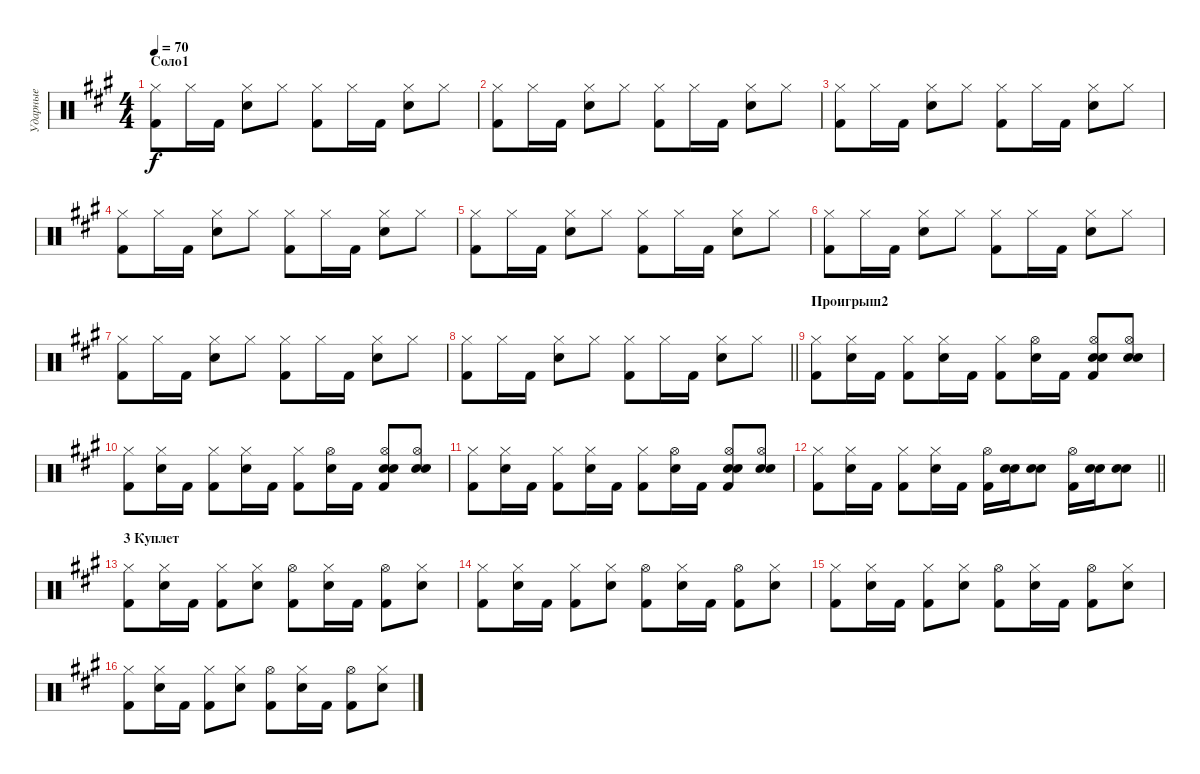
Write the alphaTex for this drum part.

\track ("Ударные" "Ударные") {instrument percussion}
\staff {score}
\articulation defaults
\ts (4 4)
\section ("" "Соло1")
\tempo 70
\clef neutral
\ks a
("Hi-Hat (closed)" "Kick (hit) 2").8{dy f} "Hi-Hat (closed)".16 "Kick (hit) 2".16 ("Hi-Hat (closed)" "Snare (hit) 2").8 "Hi-Hat (closed)".8 ("Hi-Hat (closed)" "Kick (hit) 2").8 "Hi-Hat (closed)".16 "Kick (hit) 2".16 ("Hi-Hat (closed)" "Snare (hit) 2").8 "Hi-Hat (closed)".8 |
("Hi-Hat (closed)" "Kick (hit) 2").8 "Hi-Hat (closed)".16 "Kick (hit) 2".16 ("Hi-Hat (closed)" "Snare (hit) 2").8 "Hi-Hat (closed)".8 ("Hi-Hat (closed)" "Kick (hit) 2").8 "Hi-Hat (closed)".16 "Kick (hit) 2".16 ("Hi-Hat (closed)" "Snare (hit) 2").8 "Hi-Hat (closed)".8 |
("Hi-Hat (closed)" "Kick (hit) 2").8 "Hi-Hat (closed)".16 "Kick (hit) 2".16 ("Hi-Hat (closed)" "Snare (hit) 2").8 "Hi-Hat (closed)".8 ("Hi-Hat (closed)" "Kick (hit) 2").8 "Hi-Hat (closed)".16 "Kick (hit) 2".16 ("Hi-Hat (closed)" "Snare (hit) 2").8 "Hi-Hat (closed)".8 |
("Hi-Hat (closed)" "Kick (hit) 2").8 "Hi-Hat (closed)".16 "Kick (hit) 2".16 ("Hi-Hat (closed)" "Snare (hit) 2").8 "Hi-Hat (closed)".8 ("Hi-Hat (closed)" "Kick (hit) 2").8 "Hi-Hat (closed)".16 "Kick (hit) 2".16 ("Hi-Hat (closed)" "Snare (hit) 2").8 "Hi-Hat (closed)".8 |
("Hi-Hat (closed)" "Kick (hit) 2").8 "Hi-Hat (closed)".16 "Kick (hit) 2".16 ("Hi-Hat (closed)" "Snare (hit) 2").8 "Hi-Hat (closed)".8 ("Hi-Hat (closed)" "Kick (hit) 2").8 "Hi-Hat (closed)".16 "Kick (hit) 2".16 ("Hi-Hat (closed)" "Snare (hit) 2").8 "Hi-Hat (closed)".8 |
("Hi-Hat (closed)" "Kick (hit) 2").8 "Hi-Hat (closed)".16 "Kick (hit) 2".16 ("Hi-Hat (closed)" "Snare (hit) 2").8 "Hi-Hat (closed)".8 ("Hi-Hat (closed)" "Kick (hit) 2").8 "Hi-Hat (closed)".16 "Kick (hit) 2".16 ("Hi-Hat (closed)" "Snare (hit) 2").8 "Hi-Hat (closed)".8 |
("Hi-Hat (closed)" "Kick (hit) 2").8 "Hi-Hat (closed)".16 "Kick (hit) 2".16 ("Hi-Hat (closed)" "Snare (hit) 2").8 "Hi-Hat (closed)".8 ("Hi-Hat (closed)" "Kick (hit) 2").8 "Hi-Hat (closed)".16 "Kick (hit) 2".16 ("Hi-Hat (closed)" "Snare (hit) 2").8 "Hi-Hat (closed)".8 |
\barLineRight lightlight
("Hi-Hat (closed)" "Kick (hit) 2").8 "Hi-Hat (closed)".16 "Kick (hit) 2".16 ("Hi-Hat (closed)" "Snare (hit) 2").8 "Hi-Hat (closed)".8 ("Hi-Hat (closed)" "Kick (hit) 2").8 "Hi-Hat (closed)".16 "Kick (hit) 2".16 ("Hi-Hat (closed)" "Snare (hit) 2").8 "Hi-Hat (closed)".8 |
\section ("" "Проигрыш2")
("Hi-Hat (closed)" "Kick (hit) 2").8 ("Hi-Hat (closed)" "Snare (hit) 2").16 "Kick (hit) 2".16 ("Hi-Hat (closed)" "Kick (hit) 2").8 ("Hi-Hat (closed)" "Snare (hit) 2").16 "Kick (hit) 2".16 ("Hi-Hat (closed)" "Kick (hit) 2").8 ("Hi-Hat (open)" "Snare (hit) 2").16 "Kick (hit) 2".16 ("Hi-Hat (open)" "Electric Snare (hit)" "Snare (hit) 2" "Kick (hit) 2").8 ("Hi-Hat (open)" "Electric Snare (hit)" "Snare (hit) 2").8 |
("Hi-Hat (closed)" "Kick (hit) 2").8 ("Hi-Hat (closed)" "Snare (hit) 2").16 "Kick (hit) 2".16 ("Hi-Hat (closed)" "Kick (hit) 2").8 ("Hi-Hat (closed)" "Snare (hit) 2").16 "Kick (hit) 2".16 ("Hi-Hat (closed)" "Kick (hit) 2").8 ("Hi-Hat (open)" "Snare (hit) 2").16 "Kick (hit) 2".16 ("Hi-Hat (open)" "Electric Snare (hit)" "Snare (hit) 2" "Kick (hit) 2").8 ("Hi-Hat (open)" "Electric Snare (hit)" "Snare (hit) 2").8 |
("Hi-Hat (closed)" "Kick (hit) 2").8 ("Hi-Hat (closed)" "Snare (hit) 2").16 "Kick (hit) 2".16 ("Hi-Hat (closed)" "Kick (hit) 2").8 ("Hi-Hat (closed)" "Snare (hit) 2").16 "Kick (hit) 2".16 ("Hi-Hat (closed)" "Kick (hit) 2").8 ("Hi-Hat (open)" "Snare (hit) 2").16 "Kick (hit) 2".16 ("Hi-Hat (open)" "Electric Snare (hit)" "Snare (hit) 2" "Kick (hit) 2").8 ("Hi-Hat (open)" "Electric Snare (hit)" "Snare (hit) 2").8 |
\barLineRight lightlight
("Hi-Hat (closed)" "Kick (hit) 2").8 ("Hi-Hat (closed)" "Snare (hit) 2").16 "Kick (hit) 2".16 ("Hi-Hat (closed)" "Kick (hit) 2").8 ("Hi-Hat (closed)" "Snare (hit) 2").16 "Kick (hit) 2".16 ("Hi-Hat (open)" "Kick (hit) 2").16 ("Electric Snare (hit)" "Snare (hit) 2").16 ("Electric Snare (hit)" "Snare (hit) 2").8 ("Hi-Hat (open)" "Kick (hit) 2").16 ("Electric Snare (hit)" "Snare (hit) 2").16 ("Electric Snare (hit)" "Snare (hit) 2").8 |
\section ("" "3 Куплет")
("Hi-Hat (closed)" "Kick (hit) 2").8 ("Hi-Hat (closed)" "Snare (hit) 2").16 "Kick (hit) 2".16 ("Hi-Hat (closed)" "Kick (hit) 2").8 ("Hi-Hat (closed)" "Snare (hit) 2").8 ("Hi-Hat (open)" "Kick (hit) 2").8 ("Hi-Hat (closed)" "Snare (hit) 2").16 "Kick (hit) 2".16 ("Hi-Hat (open)" "Kick (hit) 2").8 ("Hi-Hat (closed)" "Snare (hit) 2").8 |
("Hi-Hat (closed)" "Kick (hit) 2").8 ("Hi-Hat (closed)" "Snare (hit) 2").16 "Kick (hit) 2".16 ("Hi-Hat (closed)" "Kick (hit) 2").8 ("Hi-Hat (closed)" "Snare (hit) 2").8 ("Hi-Hat (open)" "Kick (hit) 2").8 ("Hi-Hat (closed)" "Snare (hit) 2").16 "Kick (hit) 2".16 ("Hi-Hat (open)" "Kick (hit) 2").8 ("Hi-Hat (closed)" "Snare (hit) 2").8 |
("Hi-Hat (closed)" "Kick (hit) 2").8 ("Hi-Hat (closed)" "Snare (hit) 2").16 "Kick (hit) 2".16 ("Hi-Hat (closed)" "Kick (hit) 2").8 ("Hi-Hat (closed)" "Snare (hit) 2").8 ("Hi-Hat (open)" "Kick (hit) 2").8 ("Hi-Hat (closed)" "Snare (hit) 2").16 "Kick (hit) 2".16 ("Hi-Hat (open)" "Kick (hit) 2").8 ("Hi-Hat (closed)" "Snare (hit) 2").8 |
("Hi-Hat (closed)" "Kick (hit) 2").8 ("Hi-Hat (closed)" "Snare (hit) 2").16 "Kick (hit) 2".16 ("Hi-Hat (closed)" "Kick (hit) 2").8 ("Hi-Hat (closed)" "Snare (hit) 2").8 ("Hi-Hat (open)" "Kick (hit) 2").8 ("Hi-Hat (closed)" "Snare (hit) 2").16 "Kick (hit) 2".16 ("Hi-Hat (open)" "Kick (hit) 2").8 ("Hi-Hat (closed)" "Snare (hit) 2").8
